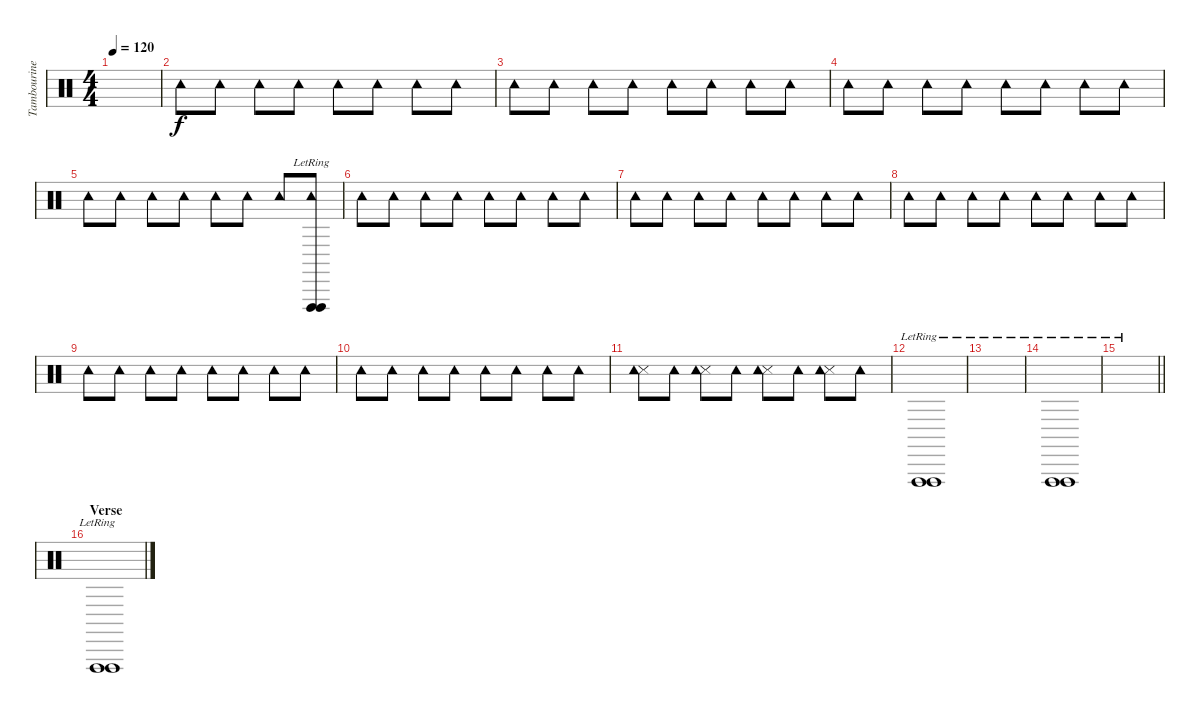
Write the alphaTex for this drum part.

\track ("Tambourine" "Tambourine") {instrument percussion}
\staff {score}
\articulation defaults
\ts (4 4)
\tempo 120
\clef neutral
\ks c
|
"Tambourine (hit)".8 "Tambourine (hit)".8 "Tambourine (hit)".8 "Tambourine (hit)".8 "Tambourine (hit)".8 "Tambourine (hit)".8 "Tambourine (hit)".8 "Tambourine (hit)".8 |
"Tambourine (hit)".8 "Tambourine (hit)".8 "Tambourine (hit)".8 "Tambourine (hit)".8 "Tambourine (hit)".8 "Tambourine (hit)".8 "Tambourine (hit)".8 "Tambourine (hit)".8 |
"Tambourine (hit)".8 "Tambourine (hit)".8 "Tambourine (hit)".8 "Tambourine (hit)".8 "Tambourine (hit)".8 "Tambourine (hit)".8 "Tambourine (hit)".8 "Tambourine (hit)".8 |
"Tambourine (hit)".8 "Tambourine (hit)".8 "Tambourine (hit)".8 "Tambourine (hit)".8 "Tambourine (hit)".8 "Tambourine (hit)".8 "Tambourine (hit)".8 ("Vibraslap (hit)"{lr} "Vibraslap (hit)"{lr} "Tambourine (hit)").8 |
"Tambourine (hit)".8 "Tambourine (hit)".8 "Tambourine (hit)".8 "Tambourine (hit)".8 "Tambourine (hit)".8 "Tambourine (hit)".8 "Tambourine (hit)".8 "Tambourine (hit)".8 |
"Tambourine (hit)".8 "Tambourine (hit)".8 "Tambourine (hit)".8 "Tambourine (hit)".8 "Tambourine (hit)".8 "Tambourine (hit)".8 "Tambourine (hit)".8 "Tambourine (hit)".8 |
"Tambourine (hit)".8 "Tambourine (hit)".8 "Tambourine (hit)".8 "Tambourine (hit)".8 "Tambourine (hit)".8 "Tambourine (hit)".8 "Tambourine (hit)".8 "Tambourine (hit)".8 |
"Tambourine (hit)".8 "Tambourine (hit)".8 "Tambourine (hit)".8 "Tambourine (hit)".8 "Tambourine (hit)".8 "Tambourine (hit)".8 "Tambourine (hit)".8 "Tambourine (hit)".8 |
"Tambourine (hit)".8 "Tambourine (hit)".8 "Tambourine (hit)".8 "Tambourine (hit)".8 "Tambourine (hit)".8 "Tambourine (hit)".8 "Tambourine (hit)".8 "Tambourine (hit)".8 |
("Snare (side stick) 3" "Tambourine (hit)").8 "Tambourine (hit)".8 ("Snare (side stick) 3" "Tambourine (hit)").8 "Tambourine (hit)".8 ("Snare (side stick) 3" "Tambourine (hit)").8 "Tambourine (hit)".8 ("Snare (side stick) 3" "Tambourine (hit)").8 "Tambourine (hit)".8 |
("Vibraslap (hit)"{lr} "Vibraslap (hit)"{lr}).1 |
|
("Vibraslap (hit)"{lr} "Vibraslap (hit)"{lr}).1 |
\barLineRight lightlight
|
\section ("" "Verse")
("Vibraslap (hit)"{lr} "Vibraslap (hit)"{lr}).1
